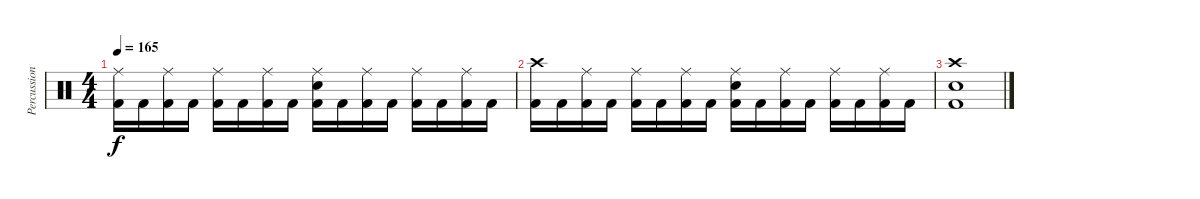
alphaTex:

\track ("Percussion" "Percussion") {instrument percussion}
\staff {score}
\articulation defaults
\ts (4 4)
\tempo 165
\clef neutral
\ks c
("Ride (middle)" "Kick (hit) 2").16{dy f} "Kick (hit) 2".16 ("Ride (middle)" "Kick (hit) 2").16 "Kick (hit) 2".16 ("Ride (middle)" "Kick (hit) 2").16 "Kick (hit) 2".16 ("Ride (middle)" "Kick (hit) 2").16 "Kick (hit) 2".16 ("Ride (middle)" "Electric Snare (hit)" "Kick (hit) 2").16 "Kick (hit) 2".16 ("Ride (middle)" "Kick (hit) 2").16 "Kick (hit) 2".16 ("Ride (middle)" "Kick (hit) 2").16 "Kick (hit) 2".16 ("Ride (middle)" "Kick (hit) 2").16 "Kick (hit) 2".16 |
("Crash high (hit)" "Kick (hit) 2").16 "Kick (hit) 2".16 ("Ride (middle)" "Kick (hit) 2").16 "Kick (hit) 2".16 ("Ride (middle)" "Kick (hit) 2").16 "Kick (hit) 2".16 ("Ride (middle)" "Kick (hit) 2").16 "Kick (hit) 2".16 ("Ride (middle)" "Electric Snare (hit)" "Kick (hit) 2").16 "Kick (hit) 2".16 ("Ride (middle)" "Kick (hit) 2").16 "Kick (hit) 2".16 ("Ride (middle)" "Kick (hit) 2").16 "Kick (hit) 2".16 ("Ride (middle)" "Kick (hit) 2").16 "Kick (hit) 2".16 |
("Crash high (hit)" "Electric Snare (hit)" "Kick (hit) 2").1
